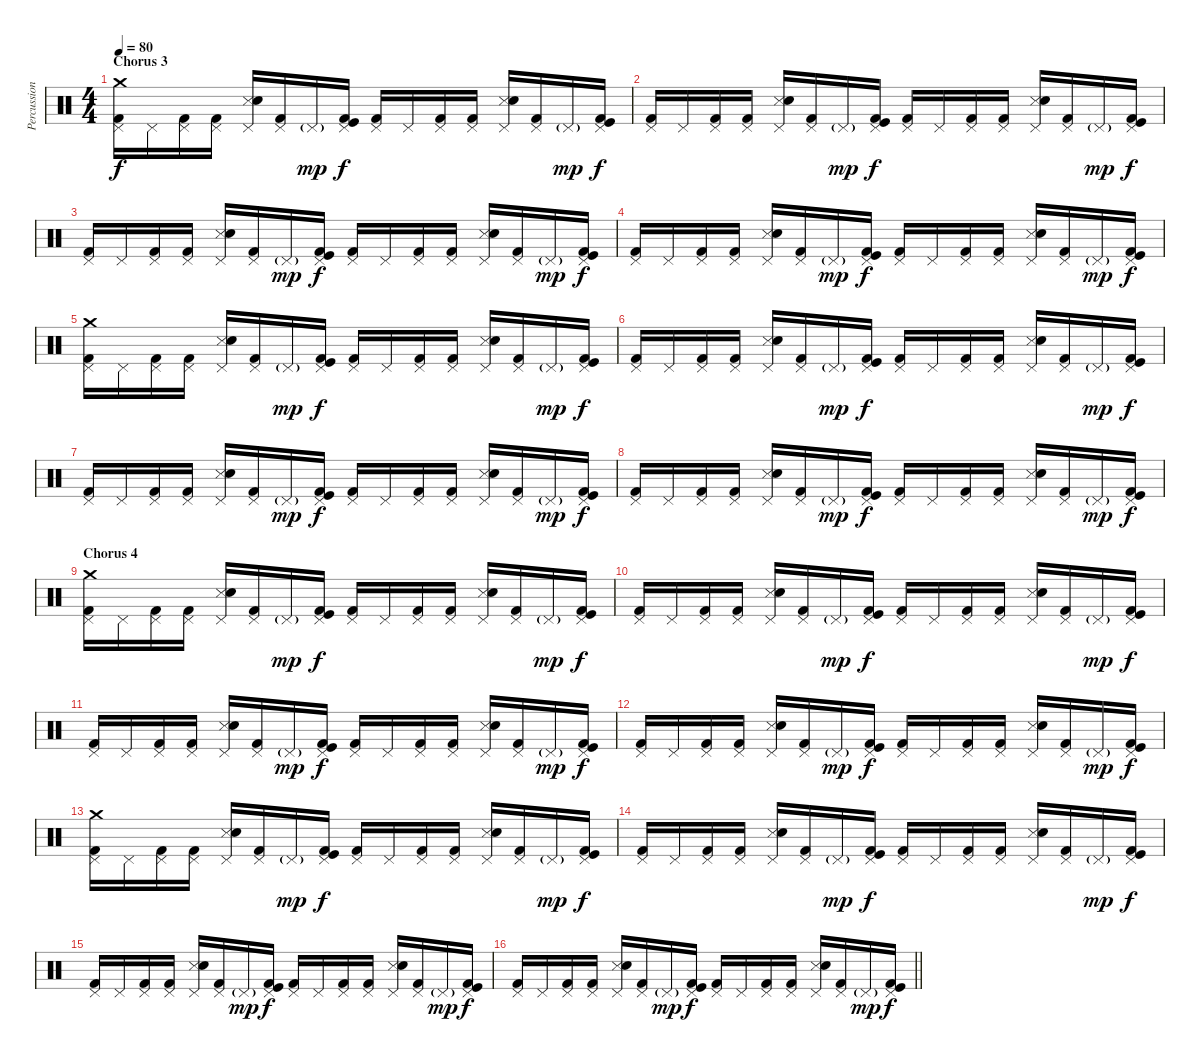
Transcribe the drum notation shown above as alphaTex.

\track ("Percussions" "Percussion") {instrument percussion}
\staff {score}
\articulation defaults
\ts (4 4)
\section ("" "Chorus 3")
\tempo 80
\clef neutral
\ks c
("Crash medium (hit)" "Pedal Hi-Hat (hit)" "Kick (hit) 2").16{dy f} "Pedal Hi-Hat (hit)".16 ("Pedal Hi-Hat (hit)" "Kick (hit) 2").16 ("Pedal Hi-Hat (hit)" "Kick (hit) 2").16 ("Pedal Hi-Hat (hit)" "Snare (side stick) 3" "Electric Snare (hit)").16 ("Pedal Hi-Hat (hit)" "Kick (hit) 2").16 "Pedal Hi-Hat (hit)"{g}.16{dy mp} ("Pedal Hi-Hat (hit)" "Kick (hit) 2" "Kick (hit)").16{dy f} ("Pedal Hi-Hat (hit)" "Kick (hit) 2").16 "Pedal Hi-Hat (hit)".16 ("Pedal Hi-Hat (hit)" "Kick (hit) 2").16 ("Pedal Hi-Hat (hit)" "Kick (hit) 2").16 ("Pedal Hi-Hat (hit)" "Snare (side stick) 3" "Electric Snare (hit)").16 ("Pedal Hi-Hat (hit)" "Kick (hit) 2").16 "Pedal Hi-Hat (hit)"{g}.16{dy mp} ("Pedal Hi-Hat (hit)" "Kick (hit) 2" "Kick (hit)").16{dy f} |
("Pedal Hi-Hat (hit)" "Kick (hit) 2").16 "Pedal Hi-Hat (hit)".16 ("Pedal Hi-Hat (hit)" "Kick (hit) 2").16 ("Pedal Hi-Hat (hit)" "Kick (hit) 2").16 ("Pedal Hi-Hat (hit)" "Snare (side stick) 3" "Electric Snare (hit)").16 ("Pedal Hi-Hat (hit)" "Kick (hit) 2").16 "Pedal Hi-Hat (hit)"{g}.16{dy mp} ("Pedal Hi-Hat (hit)" "Kick (hit) 2" "Kick (hit)").16{dy f} ("Pedal Hi-Hat (hit)" "Kick (hit) 2").16 "Pedal Hi-Hat (hit)".16 ("Pedal Hi-Hat (hit)" "Kick (hit) 2").16 ("Pedal Hi-Hat (hit)" "Kick (hit) 2").16 ("Pedal Hi-Hat (hit)" "Snare (side stick) 3" "Electric Snare (hit)").16 ("Pedal Hi-Hat (hit)" "Kick (hit) 2").16 "Pedal Hi-Hat (hit)"{g}.16{dy mp} ("Pedal Hi-Hat (hit)" "Kick (hit) 2" "Kick (hit)").16{dy f} |
("Pedal Hi-Hat (hit)" "Kick (hit) 2").16 "Pedal Hi-Hat (hit)".16 ("Pedal Hi-Hat (hit)" "Kick (hit) 2").16 ("Pedal Hi-Hat (hit)" "Kick (hit) 2").16 ("Pedal Hi-Hat (hit)" "Snare (side stick) 3" "Electric Snare (hit)").16 ("Pedal Hi-Hat (hit)" "Kick (hit) 2").16 "Pedal Hi-Hat (hit)"{g}.16{dy mp} ("Pedal Hi-Hat (hit)" "Kick (hit) 2" "Kick (hit)").16{dy f} ("Pedal Hi-Hat (hit)" "Kick (hit) 2").16 "Pedal Hi-Hat (hit)".16 ("Pedal Hi-Hat (hit)" "Kick (hit) 2").16 ("Pedal Hi-Hat (hit)" "Kick (hit) 2").16 ("Pedal Hi-Hat (hit)" "Snare (side stick) 3" "Electric Snare (hit)").16 ("Pedal Hi-Hat (hit)" "Kick (hit) 2").16 "Pedal Hi-Hat (hit)"{g}.16{dy mp} ("Pedal Hi-Hat (hit)" "Kick (hit) 2" "Kick (hit)").16{dy f} |
("Pedal Hi-Hat (hit)" "Kick (hit) 2").16 "Pedal Hi-Hat (hit)".16 ("Pedal Hi-Hat (hit)" "Kick (hit) 2").16 ("Pedal Hi-Hat (hit)" "Kick (hit) 2").16 ("Pedal Hi-Hat (hit)" "Snare (side stick) 3" "Electric Snare (hit)").16 ("Pedal Hi-Hat (hit)" "Kick (hit) 2").16 "Pedal Hi-Hat (hit)"{g}.16{dy mp} ("Pedal Hi-Hat (hit)" "Kick (hit) 2" "Kick (hit)").16{dy f} ("Pedal Hi-Hat (hit)" "Kick (hit) 2").16 "Pedal Hi-Hat (hit)".16 ("Pedal Hi-Hat (hit)" "Kick (hit) 2").16 ("Pedal Hi-Hat (hit)" "Kick (hit) 2").16 ("Pedal Hi-Hat (hit)" "Snare (side stick) 3" "Electric Snare (hit)").16 ("Pedal Hi-Hat (hit)" "Kick (hit) 2").16 "Pedal Hi-Hat (hit)"{g}.16{dy mp} ("Pedal Hi-Hat (hit)" "Kick (hit) 2" "Kick (hit)").16{dy f} |
("Crash medium (hit)" "Pedal Hi-Hat (hit)" "Kick (hit) 2").16 "Pedal Hi-Hat (hit)".16 ("Pedal Hi-Hat (hit)" "Kick (hit) 2").16 ("Pedal Hi-Hat (hit)" "Kick (hit) 2").16 ("Pedal Hi-Hat (hit)" "Snare (side stick) 3" "Electric Snare (hit)").16 ("Pedal Hi-Hat (hit)" "Kick (hit) 2").16 "Pedal Hi-Hat (hit)"{g}.16{dy mp} ("Pedal Hi-Hat (hit)" "Kick (hit) 2" "Kick (hit)").16{dy f} ("Pedal Hi-Hat (hit)" "Kick (hit) 2").16 "Pedal Hi-Hat (hit)".16 ("Pedal Hi-Hat (hit)" "Kick (hit) 2").16 ("Pedal Hi-Hat (hit)" "Kick (hit) 2").16 ("Pedal Hi-Hat (hit)" "Snare (side stick) 3" "Electric Snare (hit)").16 ("Pedal Hi-Hat (hit)" "Kick (hit) 2").16 "Pedal Hi-Hat (hit)"{g}.16{dy mp} ("Pedal Hi-Hat (hit)" "Kick (hit) 2" "Kick (hit)").16{dy f} |
("Pedal Hi-Hat (hit)" "Kick (hit) 2").16 "Pedal Hi-Hat (hit)".16 ("Pedal Hi-Hat (hit)" "Kick (hit) 2").16 ("Pedal Hi-Hat (hit)" "Kick (hit) 2").16 ("Pedal Hi-Hat (hit)" "Snare (side stick) 3" "Electric Snare (hit)").16 ("Pedal Hi-Hat (hit)" "Kick (hit) 2").16 "Pedal Hi-Hat (hit)"{g}.16{dy mp} ("Pedal Hi-Hat (hit)" "Kick (hit) 2" "Kick (hit)").16{dy f} ("Pedal Hi-Hat (hit)" "Kick (hit) 2").16 "Pedal Hi-Hat (hit)".16 ("Pedal Hi-Hat (hit)" "Kick (hit) 2").16 ("Pedal Hi-Hat (hit)" "Kick (hit) 2").16 ("Pedal Hi-Hat (hit)" "Snare (side stick) 3" "Electric Snare (hit)").16 ("Pedal Hi-Hat (hit)" "Kick (hit) 2").16 "Pedal Hi-Hat (hit)"{g}.16{dy mp} ("Pedal Hi-Hat (hit)" "Kick (hit) 2" "Kick (hit)").16{dy f} |
("Pedal Hi-Hat (hit)" "Kick (hit) 2").16 "Pedal Hi-Hat (hit)".16 ("Pedal Hi-Hat (hit)" "Kick (hit) 2").16 ("Pedal Hi-Hat (hit)" "Kick (hit) 2").16 ("Pedal Hi-Hat (hit)" "Snare (side stick) 3" "Electric Snare (hit)").16 ("Pedal Hi-Hat (hit)" "Kick (hit) 2").16 "Pedal Hi-Hat (hit)"{g}.16{dy mp} ("Pedal Hi-Hat (hit)" "Kick (hit) 2" "Kick (hit)").16{dy f} ("Pedal Hi-Hat (hit)" "Kick (hit) 2").16 "Pedal Hi-Hat (hit)".16 ("Pedal Hi-Hat (hit)" "Kick (hit) 2").16 ("Pedal Hi-Hat (hit)" "Kick (hit) 2").16 ("Pedal Hi-Hat (hit)" "Snare (side stick) 3" "Electric Snare (hit)").16 ("Pedal Hi-Hat (hit)" "Kick (hit) 2").16 "Pedal Hi-Hat (hit)"{g}.16{dy mp} ("Pedal Hi-Hat (hit)" "Kick (hit) 2" "Kick (hit)").16{dy f} |
("Pedal Hi-Hat (hit)" "Kick (hit) 2").16 "Pedal Hi-Hat (hit)".16 ("Pedal Hi-Hat (hit)" "Kick (hit) 2").16 ("Pedal Hi-Hat (hit)" "Kick (hit) 2").16 ("Pedal Hi-Hat (hit)" "Snare (side stick) 3" "Electric Snare (hit)").16 ("Pedal Hi-Hat (hit)" "Kick (hit) 2").16 "Pedal Hi-Hat (hit)"{g}.16{dy mp} ("Pedal Hi-Hat (hit)" "Kick (hit) 2" "Kick (hit)").16{dy f} ("Pedal Hi-Hat (hit)" "Kick (hit) 2").16 "Pedal Hi-Hat (hit)".16 ("Pedal Hi-Hat (hit)" "Kick (hit) 2").16 ("Pedal Hi-Hat (hit)" "Kick (hit) 2").16 ("Pedal Hi-Hat (hit)" "Snare (side stick) 3" "Electric Snare (hit)").16 ("Pedal Hi-Hat (hit)" "Kick (hit) 2").16 "Pedal Hi-Hat (hit)"{g}.16{dy mp} ("Pedal Hi-Hat (hit)" "Kick (hit) 2" "Kick (hit)").16{dy f} |
\section ("" "Chorus 4")
("Crash medium (hit)" "Pedal Hi-Hat (hit)" "Kick (hit) 2").16 "Pedal Hi-Hat (hit)".16 ("Pedal Hi-Hat (hit)" "Kick (hit) 2").16 ("Pedal Hi-Hat (hit)" "Kick (hit) 2").16 ("Pedal Hi-Hat (hit)" "Snare (side stick) 3" "Electric Snare (hit)").16 ("Pedal Hi-Hat (hit)" "Kick (hit) 2").16 "Pedal Hi-Hat (hit)"{g}.16{dy mp} ("Pedal Hi-Hat (hit)" "Kick (hit) 2" "Kick (hit)").16{dy f} ("Pedal Hi-Hat (hit)" "Kick (hit) 2").16 "Pedal Hi-Hat (hit)".16 ("Pedal Hi-Hat (hit)" "Kick (hit) 2").16 ("Pedal Hi-Hat (hit)" "Kick (hit) 2").16 ("Pedal Hi-Hat (hit)" "Snare (side stick) 3" "Electric Snare (hit)").16 ("Pedal Hi-Hat (hit)" "Kick (hit) 2").16 "Pedal Hi-Hat (hit)"{g}.16{dy mp} ("Pedal Hi-Hat (hit)" "Kick (hit) 2" "Kick (hit)").16{dy f} |
("Pedal Hi-Hat (hit)" "Kick (hit) 2").16 "Pedal Hi-Hat (hit)".16 ("Pedal Hi-Hat (hit)" "Kick (hit) 2").16 ("Pedal Hi-Hat (hit)" "Kick (hit) 2").16 ("Pedal Hi-Hat (hit)" "Snare (side stick) 3" "Electric Snare (hit)").16 ("Pedal Hi-Hat (hit)" "Kick (hit) 2").16 "Pedal Hi-Hat (hit)"{g}.16{dy mp} ("Pedal Hi-Hat (hit)" "Kick (hit) 2" "Kick (hit)").16{dy f} ("Pedal Hi-Hat (hit)" "Kick (hit) 2").16 "Pedal Hi-Hat (hit)".16 ("Pedal Hi-Hat (hit)" "Kick (hit) 2").16 ("Pedal Hi-Hat (hit)" "Kick (hit) 2").16 ("Pedal Hi-Hat (hit)" "Snare (side stick) 3" "Electric Snare (hit)").16 ("Pedal Hi-Hat (hit)" "Kick (hit) 2").16 "Pedal Hi-Hat (hit)"{g}.16{dy mp} ("Pedal Hi-Hat (hit)" "Kick (hit) 2" "Kick (hit)").16{dy f} |
("Pedal Hi-Hat (hit)" "Kick (hit) 2").16 "Pedal Hi-Hat (hit)".16 ("Pedal Hi-Hat (hit)" "Kick (hit) 2").16 ("Pedal Hi-Hat (hit)" "Kick (hit) 2").16 ("Pedal Hi-Hat (hit)" "Snare (side stick) 3" "Electric Snare (hit)").16 ("Pedal Hi-Hat (hit)" "Kick (hit) 2").16 "Pedal Hi-Hat (hit)"{g}.16{dy mp} ("Pedal Hi-Hat (hit)" "Kick (hit) 2" "Kick (hit)").16{dy f} ("Pedal Hi-Hat (hit)" "Kick (hit) 2").16 "Pedal Hi-Hat (hit)".16 ("Pedal Hi-Hat (hit)" "Kick (hit) 2").16 ("Pedal Hi-Hat (hit)" "Kick (hit) 2").16 ("Pedal Hi-Hat (hit)" "Snare (side stick) 3" "Electric Snare (hit)").16 ("Pedal Hi-Hat (hit)" "Kick (hit) 2").16 "Pedal Hi-Hat (hit)"{g}.16{dy mp} ("Pedal Hi-Hat (hit)" "Kick (hit) 2" "Kick (hit)").16{dy f} |
("Pedal Hi-Hat (hit)" "Kick (hit) 2").16 "Pedal Hi-Hat (hit)".16 ("Pedal Hi-Hat (hit)" "Kick (hit) 2").16 ("Pedal Hi-Hat (hit)" "Kick (hit) 2").16 ("Pedal Hi-Hat (hit)" "Snare (side stick) 3" "Electric Snare (hit)").16 ("Pedal Hi-Hat (hit)" "Kick (hit) 2").16 "Pedal Hi-Hat (hit)"{g}.16{dy mp} ("Pedal Hi-Hat (hit)" "Kick (hit) 2" "Kick (hit)").16{dy f} ("Pedal Hi-Hat (hit)" "Kick (hit) 2").16 "Pedal Hi-Hat (hit)".16 ("Pedal Hi-Hat (hit)" "Kick (hit) 2").16 ("Pedal Hi-Hat (hit)" "Kick (hit) 2").16 ("Pedal Hi-Hat (hit)" "Snare (side stick) 3" "Electric Snare (hit)").16 ("Pedal Hi-Hat (hit)" "Kick (hit) 2").16 "Pedal Hi-Hat (hit)"{g}.16{dy mp} ("Pedal Hi-Hat (hit)" "Kick (hit) 2" "Kick (hit)").16{dy f} |
("Crash medium (hit)" "Pedal Hi-Hat (hit)" "Kick (hit) 2").16 "Pedal Hi-Hat (hit)".16 ("Pedal Hi-Hat (hit)" "Kick (hit) 2").16 ("Pedal Hi-Hat (hit)" "Kick (hit) 2").16 ("Pedal Hi-Hat (hit)" "Snare (side stick) 3" "Electric Snare (hit)").16 ("Pedal Hi-Hat (hit)" "Kick (hit) 2").16 "Pedal Hi-Hat (hit)"{g}.16{dy mp} ("Pedal Hi-Hat (hit)" "Kick (hit) 2" "Kick (hit)").16{dy f} ("Pedal Hi-Hat (hit)" "Kick (hit) 2").16 "Pedal Hi-Hat (hit)".16 ("Pedal Hi-Hat (hit)" "Kick (hit) 2").16 ("Pedal Hi-Hat (hit)" "Kick (hit) 2").16 ("Pedal Hi-Hat (hit)" "Snare (side stick) 3" "Electric Snare (hit)").16 ("Pedal Hi-Hat (hit)" "Kick (hit) 2").16 "Pedal Hi-Hat (hit)"{g}.16{dy mp} ("Pedal Hi-Hat (hit)" "Kick (hit) 2" "Kick (hit)").16{dy f} |
("Pedal Hi-Hat (hit)" "Kick (hit) 2").16 "Pedal Hi-Hat (hit)".16 ("Pedal Hi-Hat (hit)" "Kick (hit) 2").16 ("Pedal Hi-Hat (hit)" "Kick (hit) 2").16 ("Pedal Hi-Hat (hit)" "Snare (side stick) 3" "Electric Snare (hit)").16 ("Pedal Hi-Hat (hit)" "Kick (hit) 2").16 "Pedal Hi-Hat (hit)"{g}.16{dy mp} ("Pedal Hi-Hat (hit)" "Kick (hit) 2" "Kick (hit)").16{dy f} ("Pedal Hi-Hat (hit)" "Kick (hit) 2").16 "Pedal Hi-Hat (hit)".16 ("Pedal Hi-Hat (hit)" "Kick (hit) 2").16 ("Pedal Hi-Hat (hit)" "Kick (hit) 2").16 ("Pedal Hi-Hat (hit)" "Snare (side stick) 3" "Electric Snare (hit)").16 ("Pedal Hi-Hat (hit)" "Kick (hit) 2").16 "Pedal Hi-Hat (hit)"{g}.16{dy mp} ("Pedal Hi-Hat (hit)" "Kick (hit) 2" "Kick (hit)").16{dy f} |
("Pedal Hi-Hat (hit)" "Kick (hit) 2").16 "Pedal Hi-Hat (hit)".16 ("Pedal Hi-Hat (hit)" "Kick (hit) 2").16 ("Pedal Hi-Hat (hit)" "Kick (hit) 2").16 ("Pedal Hi-Hat (hit)" "Snare (side stick) 3" "Electric Snare (hit)").16 ("Pedal Hi-Hat (hit)" "Kick (hit) 2").16 "Pedal Hi-Hat (hit)"{g}.16{dy mp} ("Pedal Hi-Hat (hit)" "Kick (hit) 2" "Kick (hit)").16{dy f} ("Pedal Hi-Hat (hit)" "Kick (hit) 2").16 "Pedal Hi-Hat (hit)".16 ("Pedal Hi-Hat (hit)" "Kick (hit) 2").16 ("Pedal Hi-Hat (hit)" "Kick (hit) 2").16 ("Pedal Hi-Hat (hit)" "Snare (side stick) 3" "Electric Snare (hit)").16 ("Pedal Hi-Hat (hit)" "Kick (hit) 2").16 "Pedal Hi-Hat (hit)"{g}.16{dy mp} ("Pedal Hi-Hat (hit)" "Kick (hit) 2" "Kick (hit)").16{dy f} |
\barLineRight lightlight
("Pedal Hi-Hat (hit)" "Kick (hit) 2").16 "Pedal Hi-Hat (hit)".16 ("Pedal Hi-Hat (hit)" "Kick (hit) 2").16 ("Pedal Hi-Hat (hit)" "Kick (hit) 2").16 ("Pedal Hi-Hat (hit)" "Snare (side stick) 3" "Electric Snare (hit)").16 ("Pedal Hi-Hat (hit)" "Kick (hit) 2").16 "Pedal Hi-Hat (hit)"{g}.16{dy mp} ("Pedal Hi-Hat (hit)" "Kick (hit) 2" "Kick (hit)").16{dy f} ("Pedal Hi-Hat (hit)" "Kick (hit) 2").16 "Pedal Hi-Hat (hit)".16 ("Pedal Hi-Hat (hit)" "Kick (hit) 2").16 ("Pedal Hi-Hat (hit)" "Kick (hit) 2").16 ("Pedal Hi-Hat (hit)" "Snare (side stick) 3" "Electric Snare (hit)").16 ("Pedal Hi-Hat (hit)" "Kick (hit) 2").16 "Pedal Hi-Hat (hit)"{g}.16{dy mp} ("Pedal Hi-Hat (hit)" "Kick (hit) 2" "Kick (hit)").16{dy f}
